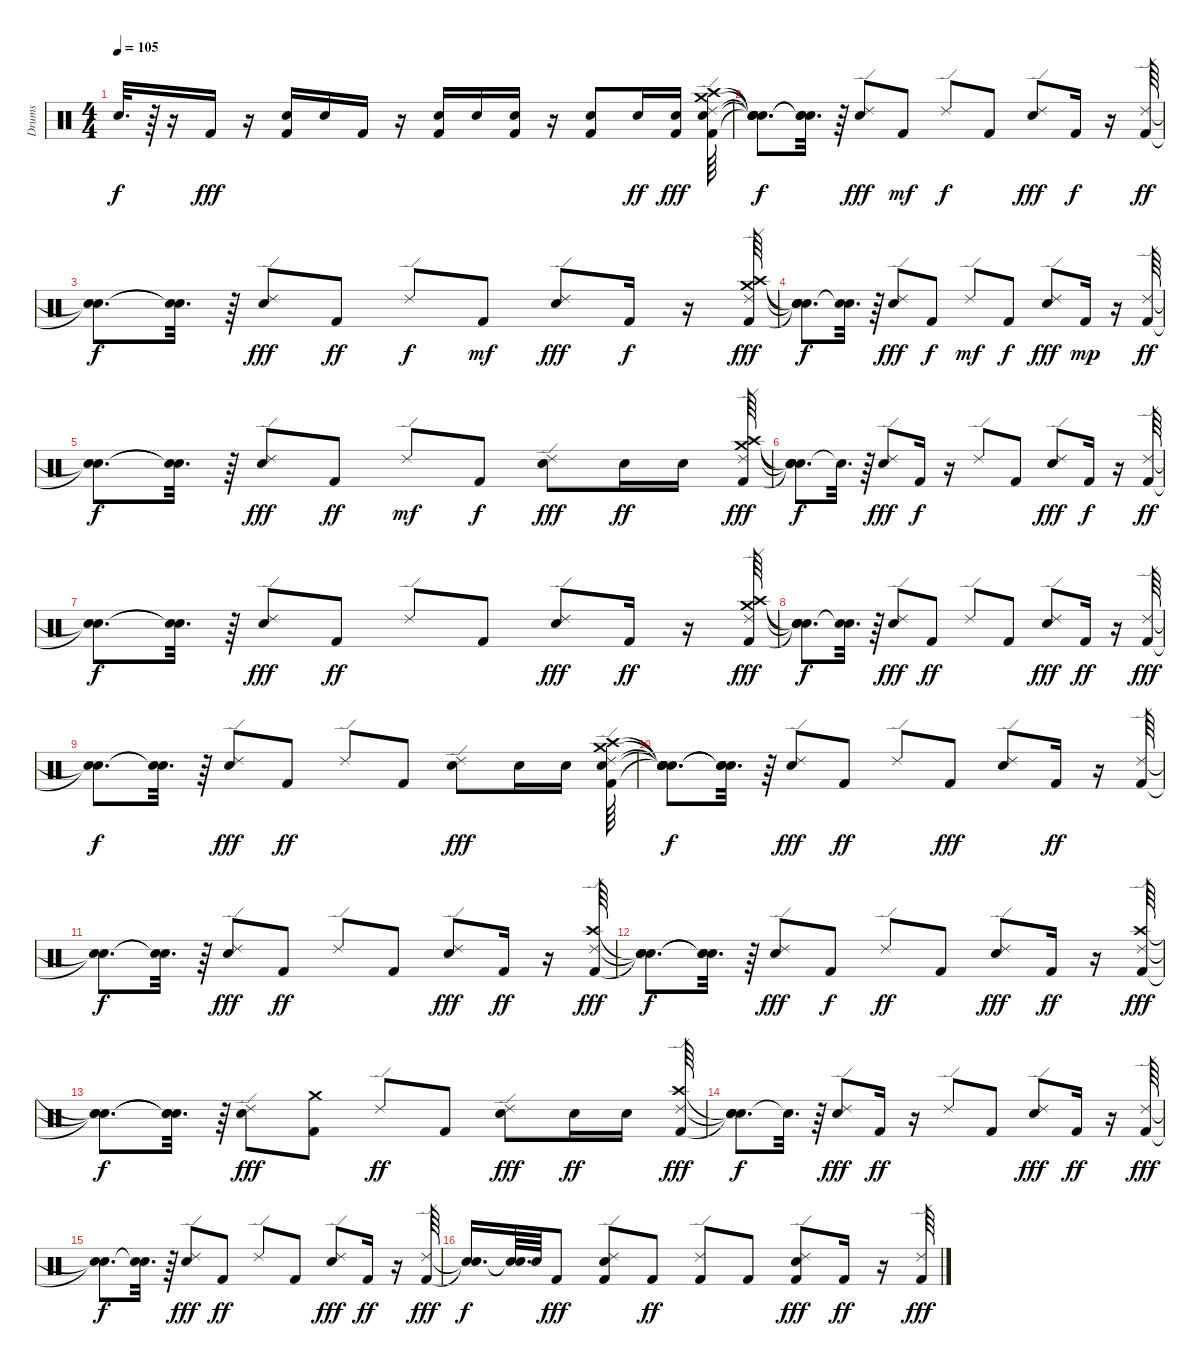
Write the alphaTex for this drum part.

\track ("Drums" "Drums") {instrument percussion}
\staff {score}
\articulation defaults
\ts (4 4)
\tempo 105
\clef neutral
\ks c "Snare (hit)"{t}.32{d dy f}
r.64 r.16 "Kick (hit) 2".16{dy fff} r.16 ("Kick (hit) 2" "Snare (hit) 2").16 "Snare (hit) 2".16 "Kick (hit) 2".16 r.16 ("Snare (hit) 2" "Kick (hit) 2").16 "Snare (hit) 2".16 ("Snare (hit) 2" "Kick (hit) 2").16 r.16 ("Kick (hit) 2" "Snare (hit) 2").8 "Snare (hit) 2".16{dy ff} ("Kick (hit) 2" "Snare (hit) 2").16{dy fff} ("Crash medium (hit)" "Crash high (hit)" "Ride (edge) 2" "Kick (hit) 2" "Snare (hit) 2").64 |
("Snare (hit)"{t} "Snare (hit)"{t} "Snare (hit)"{t} "Snare (hit)"{t} "Snare (hit)"{t}).8{d dy f} ("Snare (hit)"{t} "Snare (hit)"{t} "Snare (hit)"{t}).32{d} r.64 ("Ride (edge) 2" "Snare (hit) 2").8{dy fff} "Kick (hit) 2".8{dy mf} "Ride (edge) 2".8{dy f} "Kick (hit) 2".8 ("Ride (edge) 2" "Snare (hit) 2").8{dy fff} "Kick (hit) 2".16{dy f} r.16 ("Ride (edge) 2" "Kick (hit) 2").64{dy ff} |
("Snare (hit)"{t} "Snare (hit)"{t}).8{d dy f} ("Snare (hit)"{t} "Snare (hit)"{t}).32{d} r.64 ("Ride (edge) 2" "Snare (hit) 2").8{dy fff} "Kick (hit) 2".8{dy ff} "Ride (edge) 2".8{dy f} "Kick (hit) 2".8{dy mf} ("Ride (edge) 2" "Snare (hit) 2").8{dy fff} "Kick (hit) 2".16{dy f} r.16 ("Crash medium (hit)" "Crash high (hit)" "Ride (edge) 2" "Kick (hit) 2").64{dy fff} |
("Snare (hit)"{t} "Snare (hit)"{t} "Snare (hit)"{t} "Snare (hit)"{t}).8{d dy f} ("Snare (hit)"{t} "Snare (hit)"{t}).32{d} r.64 ("Ride (edge) 2" "Snare (hit) 2").8{dy fff} "Kick (hit) 2".8{dy f} "Ride (edge) 2".8{dy mf} "Kick (hit) 2".8{dy f} ("Ride (edge) 2" "Snare (hit) 2").8{dy fff} "Kick (hit) 2".16{dy mp} r.16 ("Ride (edge) 2" "Kick (hit) 2").64{dy ff} |
("Snare (hit)"{t} "Snare (hit)"{t}).8{d dy f} ("Snare (hit)"{t} "Snare (hit)"{t}).32{d} r.64 ("Ride (edge) 2" "Snare (hit) 2").8{dy fff} "Kick (hit) 2".8{dy ff} "Ride (edge) 2".8{dy mf} "Kick (hit) 2".8{dy f} ("Ride (edge) 2" "Snare (hit) 2").8{dy fff} "Snare (hit) 2".16{dy ff} "Snare (hit) 2".16 ("Crash medium (hit)" "Crash high (hit)" "Ride (edge) 2" "Kick (hit) 2").64{dy fff} |
("Snare (hit)"{t} "Snare (hit)"{t} "Snare (hit)"{t} "Snare (hit)"{t}).8{d dy f} "Snare (hit)"{t}.32{d} r.64 ("Ride (edge) 2" "Snare (hit) 2").8{dy fff} "Kick (hit) 2".16{dy f} r.16 "Ride (edge) 2".8 "Kick (hit) 2".8 ("Ride (edge) 2" "Snare (hit) 2").8{dy fff} "Kick (hit) 2".16{dy f} r.16 ("Ride (edge) 2" "Kick (hit) 2").64{dy ff} |
("Snare (hit)"{t} "Snare (hit)"{t}).8{d dy f} ("Snare (hit)"{t} "Snare (hit)"{t}).32{d} r.64 ("Ride (edge) 2" "Snare (hit) 2").8{dy fff} "Kick (hit) 2".8{dy ff} "Ride (edge) 2".8 "Kick (hit) 2".8 ("Ride (edge) 2" "Snare (hit) 2").8{dy fff} "Kick (hit) 2".16{dy ff} r.16 ("Crash high (hit)" "Crash medium (hit)" "Ride (edge) 2" "Kick (hit) 2").64{dy fff} |
("Snare (hit)"{t} "Snare (hit)"{t} "Snare (hit)"{t} "Snare (hit)"{t}).8{d dy f} ("Snare (hit)"{t} "Snare (hit)"{t}).32{d} r.64 ("Ride (edge) 2" "Snare (hit) 2").8{dy fff} "Kick (hit) 2".8{dy ff} "Ride (edge) 2".8 "Kick (hit) 2".8 ("Ride (edge) 2" "Snare (hit) 2").8{dy fff} "Kick (hit) 2".16{dy ff} r.16 ("Ride (edge) 2" "Kick (hit) 2").64{dy fff} |
("Snare (hit)"{t} "Snare (hit)"{t}).8{d dy f} ("Snare (hit)"{t} "Snare (hit)"{t}).32{d} r.64 ("Ride (edge) 2" "Snare (hit) 2").8{dy fff} "Kick (hit) 2".8{dy ff} "Ride (edge) 2".8 "Kick (hit) 2".8 ("Ride (edge) 2" "Snare (hit) 2").8{dy fff} "Snare (hit) 2".16 "Snare (hit) 2".16 ("Crash medium (hit)" "Crash high (hit)" "Ride (edge) 2" "Kick (hit) 2" "Snare (hit) 2").64 |
("Snare (hit)"{t} "Snare (hit)"{t} "Snare (hit)"{t} "Snare (hit)"{t} "Snare (hit)"{t}).8{d dy f} ("Snare (hit)"{t} "Snare (hit)"{t} "Snare (hit)"{t}).32{d} r.64 ("Ride (edge) 2" "Snare (hit) 2").8{dy fff} "Kick (hit) 2".8{dy ff} "Ride (edge) 2".8 "Kick (hit) 2".8{dy fff} ("Ride (edge) 2" "Snare (hit) 2").8 "Kick (hit) 2".16{dy ff} r.16 ("Ride (edge) 2" "Kick (hit) 2").64 |
("Snare (hit)"{t} "Snare (hit)"{t}).8{d dy f} ("Snare (hit)"{t} "Snare (hit)"{t}).32{d} r.64 ("Ride (edge) 2" "Snare (hit) 2").8{dy fff} "Kick (hit) 2".8{dy ff} "Ride (edge) 2".8 "Kick (hit) 2".8 ("Ride (edge) 2" "Snare (hit) 2").8{dy fff} "Kick (hit) 2".16{dy ff} r.16 ("Crash high (hit)" "Ride (edge) 2" "Kick (hit) 2").64{dy fff} |
("Snare (hit)"{t} "Snare (hit)"{t} "Snare (hit)"{t}).8{d dy f} ("Snare (hit)"{t} "Snare (hit)"{t} "Snare (hit)"{t}).32{d} r.64 ("Ride (edge) 2" "Snare (hit) 2").8{dy fff} "Kick (hit) 2".8{dy f} "Ride (edge) 2".8{dy ff} "Kick (hit) 2".8 ("Ride (edge) 2" "Snare (hit) 2").8{dy fff} "Kick (hit) 2".16{dy ff} r.16 ("Crash high (hit)" "Ride (edge) 2" "Kick (hit) 2").64{dy fff} |
("Snare (hit)"{t} "Snare (hit)"{t} "Snare (hit)"{t}).8{d dy f} ("Snare (hit)"{t} "Snare (hit)"{t} "Snare (hit)"{t}).32{d} r.64 ("Ride (edge) 2" "Snare (hit) 2").8{dy fff} ("Kick (hit) 2" "Crash medium (hit)").8 "Ride (edge) 2".8{dy ff} "Kick (hit) 2".8 ("Ride (edge) 2" "Snare (hit) 2").8{dy fff} "Snare (hit) 2".16{dy ff} "Snare (hit) 2".16 ("Crash high (hit)" "Ride (edge) 2" "Kick (hit) 2").64{dy fff} |
("Snare (hit)"{t} "Snare (hit)"{t} "Snare (hit)"{t}).8{d dy f} "Snare (hit)"{t}.32{d} r.64 ("Ride (edge) 2" "Snare (hit) 2").8{dy fff} "Kick (hit) 2".16{dy ff} r.16 "Ride (edge) 2".8 "Kick (hit) 2".8 ("Ride (edge) 2" "Snare (hit) 2").8{dy fff} "Kick (hit) 2".16{dy ff} r.16 ("Ride (edge) 2" "Kick (hit) 2").64{dy fff} |
("Snare (hit)"{t} "Snare (hit)"{t}).8{d dy f} ("Snare (hit)"{t} "Snare (hit)"{t}).32{d} r.64 ("Ride (edge) 2" "Snare (hit) 2").8{dy fff} "Kick (hit) 2".8{dy ff} "Ride (edge) 2".8 "Kick (hit) 2".8 ("Ride (edge) 2" "Snare (hit) 2").8{dy fff} "Kick (hit) 2".16{dy ff} r.16 ("Ride (edge) 2" "Kick (hit) 2").64{dy fff} |
("Snare (hit)"{t} "Snare (hit)"{t}).16{d dy f} ("Snare (hit)"{t} "Snare (hit)"{t}).64{d} "Snare (hit)"{t}.64 "Kick (hit) 2".8{dy fff} ("Kick (hit) 2" "Ride (edge) 2" "Snare (hit) 2").8 "Kick (hit) 2".8{dy ff} ("Kick (hit) 2" "Ride (edge) 2").8 "Kick (hit) 2".8 ("Kick (hit) 2" "Ride (edge) 2" "Snare (hit) 2").8{dy fff} "Kick (hit) 2".16{dy ff} r.16 ("Ride (edge) 2" "Kick (hit) 2").64{dy fff}
